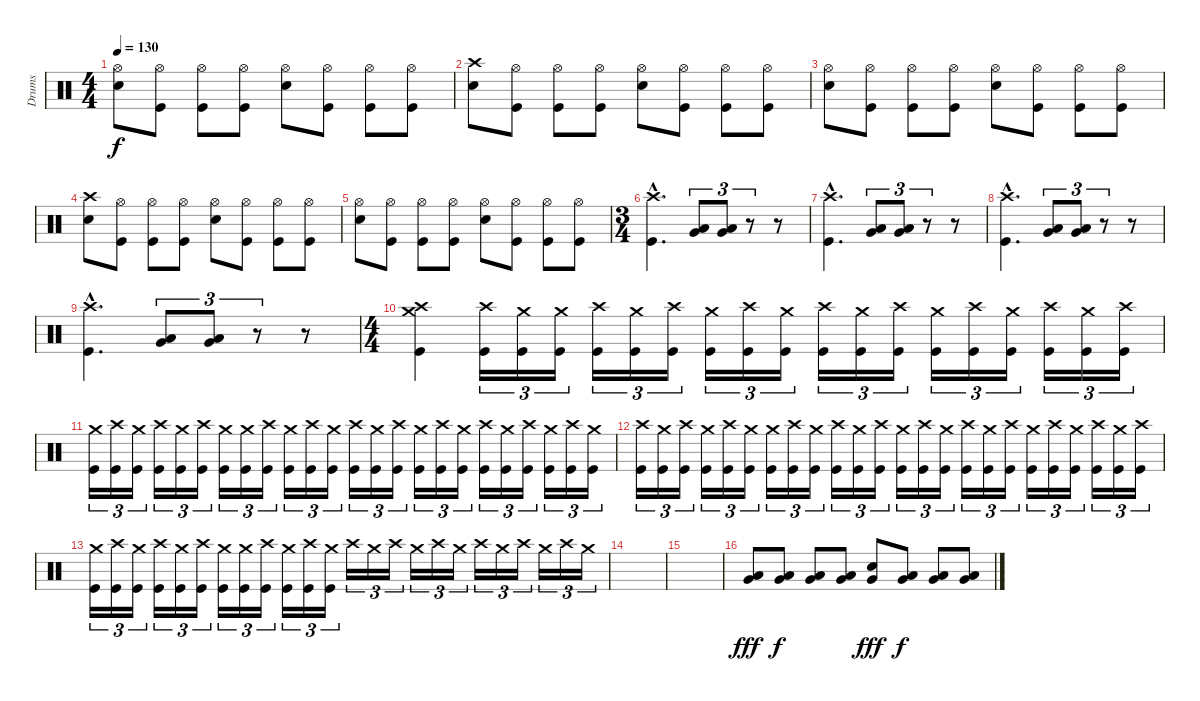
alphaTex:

\track ("Drums" "Drums") {instrument percussion}
\staff {score}
\articulation defaults
\ts (4 4)
\tempo 130
\clef neutral
\ks c
("Hi-Hat (open)" "Snare (hit) 2").8{dy f} ("Hi-Hat (open)" "Kick (hit)").8 ("Hi-Hat (open)" "Kick (hit)").8 ("Hi-Hat (open)" "Kick (hit)").8 ("Hi-Hat (open)" "Snare (hit) 2").8 ("Hi-Hat (open)" "Kick (hit)").8 ("Hi-Hat (open)" "Kick (hit)").8 ("Hi-Hat (open)" "Kick (hit)").8 |
("Crash high (hit)" "Snare (hit) 2").8 ("Hi-Hat (open)" "Kick (hit)").8 ("Hi-Hat (open)" "Kick (hit)").8 ("Hi-Hat (open)" "Kick (hit)").8 ("Hi-Hat (open)" "Snare (hit) 2").8 ("Hi-Hat (open)" "Kick (hit)").8 ("Hi-Hat (open)" "Kick (hit)").8 ("Hi-Hat (open)" "Kick (hit)").8 |
("Hi-Hat (open)" "Snare (hit) 2").8 ("Hi-Hat (open)" "Kick (hit)").8 ("Hi-Hat (open)" "Kick (hit)").8 ("Hi-Hat (open)" "Kick (hit)").8 ("Hi-Hat (open)" "Snare (hit) 2").8 ("Hi-Hat (open)" "Kick (hit)").8 ("Hi-Hat (open)" "Kick (hit)").8 ("Hi-Hat (open)" "Kick (hit)").8 |
("Crash high (hit)" "Snare (hit) 2").8 ("Hi-Hat (open)" "Kick (hit)").8 ("Hi-Hat (open)" "Kick (hit)").8 ("Hi-Hat (open)" "Kick (hit)").8 ("Hi-Hat (open)" "Snare (hit) 2").8 ("Hi-Hat (open)" "Kick (hit)").8 ("Hi-Hat (open)" "Kick (hit)").8 ("Hi-Hat (open)" "Kick (hit)").8 |
("Hi-Hat (open)" "Snare (hit) 2").8 ("Hi-Hat (open)" "Kick (hit)").8 ("Hi-Hat (open)" "Kick (hit)").8 ("Hi-Hat (open)" "Kick (hit)").8 ("Hi-Hat (open)" "Snare (hit) 2").8 ("Hi-Hat (open)" "Kick (hit)").8 ("Hi-Hat (open)" "Kick (hit)").8 ("Hi-Hat (open)" "Kick (hit)").8 |
\ts (3 4)
("Crash high (hit)"{hac} "Kick (hit)"{hac}).4{d} ("Low Tom (hit)" "Very Low Tom (hit)").8{tu (3 2)} ("Low Tom (hit)" "Very Low Tom (hit)").8{tu (3 2)} r.8{tu (3 2)} r.8 |
("Crash high (hit)"{hac} "Kick (hit)"{hac}).4{d} ("Low Tom (hit)" "Very Low Tom (hit)").8{tu (3 2)} ("Low Tom (hit)" "Very Low Tom (hit)").8{tu (3 2)} r.8{tu (3 2)} r.8 |
("Crash high (hit)"{hac} "Kick (hit)"{hac}).4{d} ("Low Tom (hit)" "Very Low Tom (hit)").8{tu (3 2)} ("Low Tom (hit)" "Very Low Tom (hit)").8{tu (3 2)} r.8{tu (3 2)} r.8 |
("Crash high (hit)"{hac} "Kick (hit)"{hac}).4{d} ("Low Tom (hit)" "Very Low Tom (hit)").8{tu (3 2)} ("Low Tom (hit)" "Very Low Tom (hit)").8{tu (3 2)} r.8{tu (3 2)} r.8 |
\ts (4 4)
("Crash high (hit)" "Crash medium (hit)" "Kick (hit)").4 ("Crash high (hit)" "Kick (hit)").16{tu (3 2)} ("Crash medium (hit)" "Kick (hit)").16{tu (3 2)} ("Crash medium (hit)" "Kick (hit)").16{tu (3 2)} ("Crash high (hit)" "Kick (hit)").16{tu (3 2)} ("Crash medium (hit)" "Kick (hit)").16{tu (3 2)} ("Crash high (hit)" "Kick (hit)").16{tu (3 2)} ("Crash medium (hit)" "Kick (hit)").16{tu (3 2)} ("Crash high (hit)" "Kick (hit)").16{tu (3 2)} ("Crash medium (hit)" "Kick (hit)").16{tu (3 2)} ("Crash high (hit)" "Kick (hit)").16{tu (3 2)} ("Crash medium (hit)" "Kick (hit)").16{tu (3 2)} ("Crash high (hit)" "Kick (hit)").16{tu (3 2)} ("Crash medium (hit)" "Kick (hit)").16{tu (3 2)} ("Crash high (hit)" "Kick (hit)").16{tu (3 2)} ("Crash medium (hit)" "Kick (hit)").16{tu (3 2)} ("Crash high (hit)" "Kick (hit)").16{tu (3 2)} ("Crash medium (hit)" "Kick (hit)").16{tu (3 2)} ("Crash high (hit)" "Kick (hit)").16{tu (3 2)} |
("Crash medium (hit)" "Kick (hit)").16{tu (3 2)} ("Crash high (hit)" "Kick (hit)").16{tu (3 2)} ("Crash medium (hit)" "Kick (hit)").16{tu (3 2)} ("Crash high (hit)" "Kick (hit)").16{tu (3 2)} ("Crash medium (hit)" "Kick (hit)").16{tu (3 2)} ("Crash high (hit)" "Kick (hit)").16{tu (3 2)} ("Crash medium (hit)" "Kick (hit)").16{tu (3 2)} ("Crash medium (hit)" "Kick (hit)").16{tu (3 2)} ("Crash high (hit)" "Kick (hit)").16{tu (3 2)} ("Crash medium (hit)" "Kick (hit)").16{tu (3 2)} ("Crash high (hit)" "Kick (hit)").16{tu (3 2)} ("Crash medium (hit)" "Kick (hit)").16{tu (3 2)} ("Crash high (hit)" "Kick (hit)").16{tu (3 2)} ("Crash medium (hit)" "Kick (hit)").16{tu (3 2)} ("Crash high (hit)" "Kick (hit)").16{tu (3 2)} ("Crash medium (hit)" "Kick (hit)").16{tu (3 2)} ("Crash high (hit)" "Kick (hit)").16{tu (3 2)} ("Crash medium (hit)" "Kick (hit)").16{tu (3 2)} ("Crash high (hit)" "Kick (hit)").16{tu (3 2)} ("Crash medium (hit)" "Kick (hit)").16{tu (3 2)} ("Crash high (hit)" "Kick (hit)").16{tu (3 2)} ("Crash medium (hit)" "Kick (hit)").16{tu (3 2)} ("Crash high (hit)" "Kick (hit)").16{tu (3 2)} ("Crash medium (hit)" "Kick (hit)").16{tu (3 2)} |
("Crash high (hit)" "Kick (hit)").16{tu (3 2)} ("Crash medium (hit)" "Kick (hit)").16{tu (3 2)} ("Crash high (hit)" "Kick (hit)").16{tu (3 2)} ("Crash medium (hit)" "Kick (hit)").16{tu (3 2)} ("Crash high (hit)" "Kick (hit)").16{tu (3 2)} ("Crash medium (hit)" "Kick (hit)").16{tu (3 2)} ("Crash medium (hit)" "Kick (hit)").16{tu (3 2)} ("Crash high (hit)" "Kick (hit)").16{tu (3 2)} ("Crash medium (hit)" "Kick (hit)").16{tu (3 2)} ("Crash high (hit)" "Kick (hit)").16{tu (3 2)} ("Crash medium (hit)" "Kick (hit)").16{tu (3 2)} ("Crash high (hit)" "Kick (hit)").16{tu (3 2)} ("Crash medium (hit)" "Kick (hit)").16{tu (3 2)} ("Crash high (hit)" "Kick (hit)").16{tu (3 2)} ("Crash medium (hit)" "Kick (hit)").16{tu (3 2)} ("Crash high (hit)" "Kick (hit)").16{tu (3 2)} ("Crash medium (hit)" "Kick (hit)").16{tu (3 2)} ("Crash high (hit)" "Kick (hit)").16{tu (3 2)} ("Crash medium (hit)" "Kick (hit)").16{tu (3 2)} ("Crash high (hit)" "Kick (hit)").16{tu (3 2)} ("Crash medium (hit)" "Kick (hit)").16{tu (3 2)} ("Crash high (hit)" "Kick (hit)").16{tu (3 2)} ("Crash medium (hit)" "Kick (hit)").16{tu (3 2)} ("Crash high (hit)" "Kick (hit)").16{tu (3 2)} |
("Crash medium (hit)" "Kick (hit)").16{tu (3 2)} ("Crash high (hit)" "Kick (hit)").16{tu (3 2)} ("Crash medium (hit)" "Kick (hit)").16{tu (3 2)} ("Crash high (hit)" "Kick (hit)").16{tu (3 2)} ("Crash medium (hit)" "Kick (hit)").16{tu (3 2)} ("Crash high (hit)" "Kick (hit)").16{tu (3 2)} ("Crash medium (hit)" "Kick (hit)").16{tu (3 2)} ("Crash medium (hit)" "Kick (hit)").16{tu (3 2)} ("Crash high (hit)" "Kick (hit)").16{tu (3 2)} ("Crash medium (hit)" "Kick (hit)").16{tu (3 2)} ("Crash high (hit)" "Kick (hit)").16{tu (3 2)} ("Crash medium (hit)" "Kick (hit)").16{tu (3 2)} "Crash high (hit)".16{tu (3 2)} "Crash medium (hit)".16{tu (3 2)} "Crash high (hit)".16{tu (3 2)} "Crash medium (hit)".16{tu (3 2)} "Crash high (hit)".16{tu (3 2)} "Crash medium (hit)".16{tu (3 2)} "Crash high (hit)".16{tu (3 2)} "Crash medium (hit)".16{tu (3 2)} "Crash high (hit)".16{tu (3 2)} "Crash medium (hit)".16{tu (3 2)} "Crash high (hit)".16{tu (3 2)} "Crash medium (hit)".16{tu (3 2)} |
|
|
("Low Tom (hit)" "Very Low Tom (hit)").8{dy fff} ("Low Tom (hit)" "Very Low Tom (hit)").8{dy f} ("Low Tom (hit)" "Very Low Tom (hit)").8 ("Low Tom (hit)" "Very Low Tom (hit)").8 ("Snare (hit) 2" "Very Low Tom (hit)").8{dy fff} ("Low Tom (hit)" "Very Low Tom (hit)").8{dy f} ("Low Tom (hit)" "Very Low Tom (hit)").8 ("Low Tom (hit)" "Very Low Tom (hit)").8
